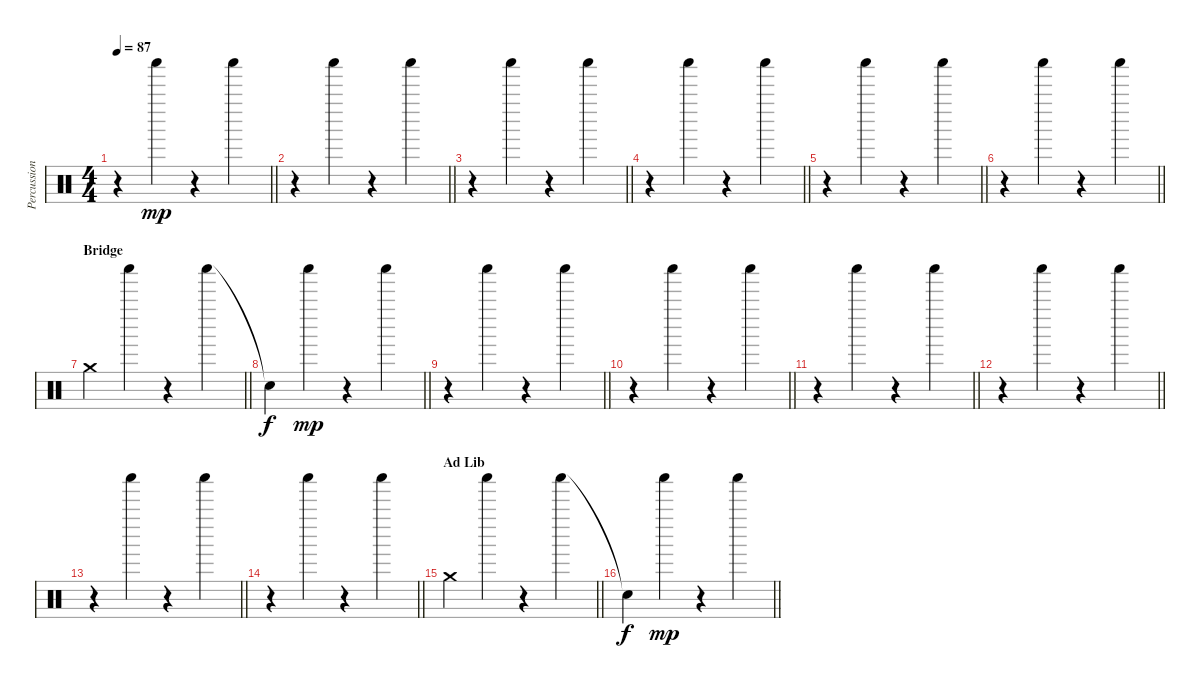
\track ("Percussion" "Percussion") {instrument percussion}
\staff {score}
\articulation defaults
\ts (4 4)
\tempo 87
\clef neutral
\barLineRight lightlight
\ks c
r.4{dy mp} "Shaker (hit)".4 r.4 "Shaker (hit)".4 |
\barLineRight lightlight
r.4 "Shaker (hit)".4 r.4 "Shaker (hit)".4 |
\barLineRight lightlight
r.4 "Shaker (hit)".4 r.4 "Shaker (hit)".4 |
\barLineRight lightlight
r.4 "Shaker (hit)".4 r.4 "Shaker (hit)".4 |
\barLineRight lightlight
r.4 "Shaker (hit)".4 r.4 "Shaker (hit)".4 |
\barLineRight lightlight
r.4 "Shaker (hit)".4 r.4 "Shaker (hit)".4 |
\section ("" "Bridge")
\barLineRight lightlight "Crash medium (hit)".4 "Shaker (hit)".4
r.4 "Shaker (hit)".4 |
\barLineRight lightlight "Snare (hit)"{t}.4{dy f} "Shaker (hit)".4{dy mp}
r.4 "Shaker (hit)".4 |
\barLineRight lightlight
r.4 "Shaker (hit)".4 r.4 "Shaker (hit)".4 |
\barLineRight lightlight
r.4 "Shaker (hit)".4 r.4 "Shaker (hit)".4 |
\barLineRight lightlight
r.4 "Shaker (hit)".4 r.4 "Shaker (hit)".4 |
\barLineRight lightlight
r.4 "Shaker (hit)".4 r.4 "Shaker (hit)".4 |
\barLineRight lightlight
r.4 "Shaker (hit)".4 r.4 "Shaker (hit)".4 |
\barLineRight lightlight
r.4 "Shaker (hit)".4 r.4 "Shaker (hit)".4 |
\section ("" "Ad Lib")
\barLineRight lightlight "Crash medium (hit)".4 "Shaker (hit)".4
r.4 "Shaker (hit)".4 |
\barLineRight lightlight "Snare (hit)"{t}.4{dy f} "Shaker (hit)".4{dy mp}
r.4 "Shaker (hit)".4
